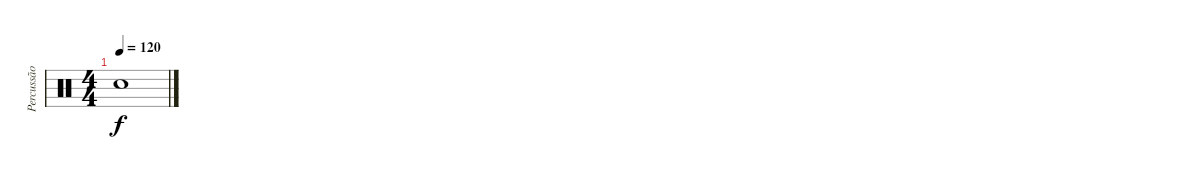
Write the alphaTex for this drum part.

\track ("Percussão" "Percussão") {instrument percussion}
\staff {score}
\articulation defaults
\ts (4 4)
\tempo 120
\clef neutral
\ks c "Snare (hit)".1{dy f}
